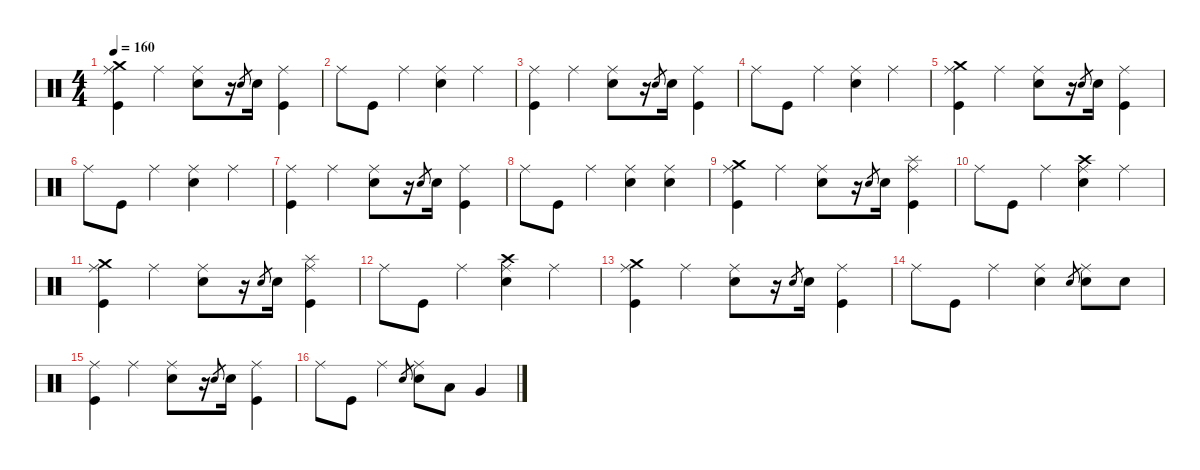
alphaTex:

\defaultSystemsLayout 4
\hideDynamics
\bracketExtendMode nobrackets
\singleTrackTrackNamePolicy hidden
\multiTrackTrackNamePolicy hidden
\firstSystemTrackNameMode fullname
\firstSystemTrackNameOrientation horizontal
\otherSystemsTrackNameOrientation horizontal
\track ("Drums" "drm.") {instrument percussion}
\staff {score}
\articulation defaults
\ts (4 4)
\tempo 160
\clef neutral
\ks aminor
("Crash medium (hit)" "Ride (middle)" "Kick (hit)").4{dy f beam Down} "Ride (middle)".4{beam Down} ("Ride (middle)" "Snare (hit) 2").8{beam Down} r.16{beam Down} "Electric Snare (hit)".8{gr dy pp beam Up} "Snare (hit) 2".16{dy p beam Down} ("Ride (middle)" "Kick (hit)").4{dy f beam Down} |
"Ride (middle)".8{beam Down} "Kick (hit)".8{beam Down} "Ride (middle)".4{beam Down} ("Ride (middle)" "Snare (hit) 2").4{beam Down} "Ride (middle)".4{beam Down} |
("Ride (middle)" "Kick (hit)").4{beam Down} "Ride (middle)".4{beam Down} ("Ride (middle)" "Snare (hit) 2").8{beam Down} r.16{beam Down} "Electric Snare (hit)".8{gr dy pp beam Up} "Snare (hit) 2".16{dy p beam Down} ("Ride (middle)" "Kick (hit)").4{dy f beam Down} |
"Ride (middle)".8{beam Down} "Kick (hit)".8{beam Down} "Ride (middle)".4{beam Down} ("Ride (middle)" "Snare (hit) 2").4{beam Down} "Ride (middle)".4{beam Down} |
("Crash medium (hit)" "Ride (middle)" "Kick (hit)").4{beam Down} "Ride (middle)".4{beam Down} ("Ride (middle)" "Snare (hit) 2").8{beam Down} r.16{beam Down} "Electric Snare (hit)".8{gr dy pp beam Up} "Snare (hit) 2".16{dy p beam Down} ("Ride (middle)" "Kick (hit)").4{dy f beam Down} |
"Ride (middle)".8{beam Down} "Kick (hit)".8{beam Down} "Ride (middle)".4{beam Down} ("Ride (middle)" "Snare (hit) 2").4{beam Down} "Ride (middle)".4{beam Down} |
("Ride (middle)" "Kick (hit)").4{beam Down} "Ride (middle)".4{beam Down} ("Ride (middle)" "Snare (hit) 2").8{beam Down} r.16{beam Down} "Electric Snare (hit)".8{gr dy pp beam Up} "Snare (hit) 2".16{dy p beam Down} ("Ride (middle)" "Kick (hit)").4{dy f beam Down} |
"Ride (middle)".8{beam Down} "Kick (hit)".8{beam Down} "Ride (middle)".4{beam Down} ("Ride (middle)" "Snare (hit) 2").4{beam Down} ("Ride (middle)" "Snare (hit) 2").4{beam Down} |
("Crash medium (hit)" "Ride (middle)" "Kick (hit)").4{beam Down} "Ride (middle)".4{beam Down} ("Ride (middle)" "Snare (hit) 2").8{beam Down} r.16{beam Down} "Electric Snare (hit)".8{gr dy pp beam Up} "Snare (hit) 2".16{dy p beam Down} ("Splash (hit)" "Ride (middle)" "Kick (hit)").4{dy mf beam Down} |
"Ride (middle)".8{dy f beam Down} "Kick (hit)".8{beam Down} "Ride (middle)".4{beam Down} ("Crash high (hit)" "Ride (middle)" "Snare (hit) 2").4{dy mf beam Down} "Ride (middle)".4{dy f beam Down} |
("Crash medium (hit)" "Ride (middle)" "Kick (hit)").4{beam Down} "Ride (middle)".4{beam Down} ("Ride (middle)" "Snare (hit) 2").8{beam Down} r.16{beam Down} "Electric Snare (hit)".8{gr dy pp beam Up} "Snare (hit) 2".16{dy p beam Down} ("Splash (hit)" "Ride (middle)" "Kick (hit)").4{dy mf beam Down} |
"Ride (middle)".8{dy f beam Down} "Kick (hit)".8{beam Down} "Ride (middle)".4{beam Down} ("Crash high (hit)" "Ride (middle)" "Snare (hit) 2").4{dy mf beam Down} "Ride (middle)".4{dy f beam Down} |
("Crash medium (hit)" "Ride (middle)" "Kick (hit)").4{beam Down} "Ride (middle)".4{beam Down} ("Ride (middle)" "Snare (hit) 2").8{beam Down} r.16{beam Down} "Electric Snare (hit)".8{gr dy pp beam Up} "Snare (hit) 2".16{dy p beam Down} ("Ride (middle)" "Kick (hit)").4{dy f beam Down} |
"Ride (middle)".8{beam Down} "Kick (hit)".8{beam Down} "Ride (middle)".4{beam Down} ("Ride (middle)" "Snare (hit) 2").4{beam Down} "Electric Snare (hit)".8{gr dy mp beam Up} ("Ride (middle)" "Snare (hit) 2").8{dy f beam Down} "Snare (hit) 2".8{dy mf beam Down} |
("Ride (middle)" "Kick (hit)").4{dy f beam Down} "Ride (middle)".4{beam Down} ("Ride (middle)" "Snare (hit) 2").8{beam Down} r.16{beam Down} "Electric Snare (hit)".8{gr dy pp beam Up} "Snare (hit) 2".16{dy p beam Down} ("Ride (middle)" "Kick (hit)").4{dy f beam Down} |
"Ride (middle)".8{beam Down} "Kick (hit)".8{beam Down} "Ride (middle)".4{beam Down} "Electric Snare (hit)".8{gr dy mf beam Up} ("Ride (middle)" "Snare (hit) 2").8{dy f beam Down} "Low Tom (hit)".8{beam Down} "Very Low Tom (hit)".4{beam Up}
